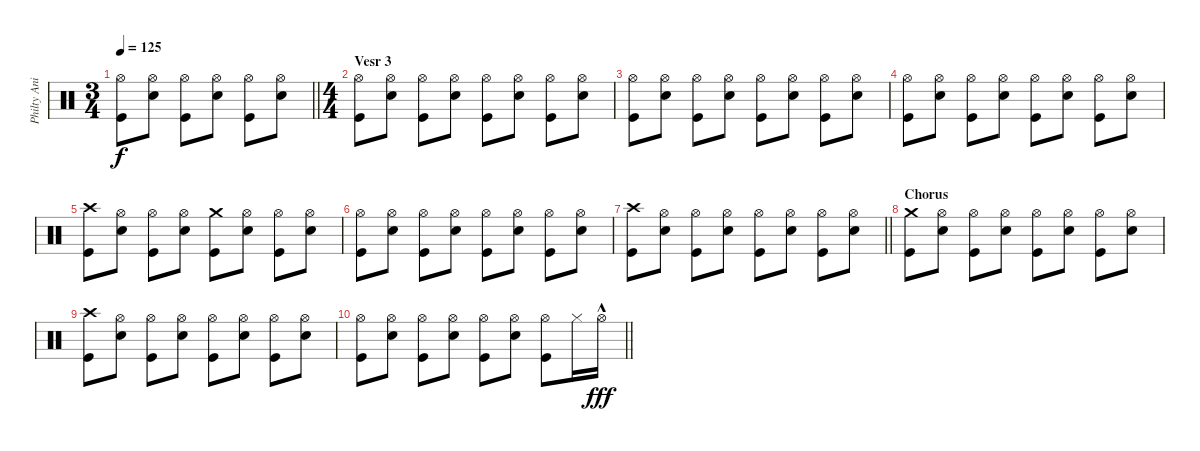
\track ("Philty Animal Taylor" "Philty Ani") {instrument percussion}
\staff {score}
\articulation defaults
\ts (3 4)
\tempo 125
\clef neutral
\barLineRight lightlight
\ks c
("Hi-Hat (open)" "Kick (hit)").8{dy f} ("Hi-Hat (open)" "Electric Snare (hit)").8 ("Hi-Hat (open)" "Kick (hit)").8 ("Hi-Hat (open)" "Electric Snare (hit)").8 ("Hi-Hat (open)" "Kick (hit)").8 ("Hi-Hat (open)" "Electric Snare (hit)").8 |
\ts (4 4)
\section ("" "Vesr 3")
("Hi-Hat (open)" "Kick (hit)").8 ("Hi-Hat (open)" "Electric Snare (hit)").8 ("Hi-Hat (open)" "Kick (hit)").8 ("Hi-Hat (open)" "Electric Snare (hit)").8 ("Hi-Hat (open)" "Kick (hit)").8 ("Hi-Hat (open)" "Electric Snare (hit)").8 ("Hi-Hat (open)" "Kick (hit)").8 ("Hi-Hat (open)" "Electric Snare (hit)").8 |
("Hi-Hat (open)" "Kick (hit)").8 ("Hi-Hat (open)" "Electric Snare (hit)").8 ("Hi-Hat (open)" "Kick (hit)").8 ("Hi-Hat (open)" "Electric Snare (hit)").8 ("Hi-Hat (open)" "Kick (hit)").8 ("Hi-Hat (open)" "Electric Snare (hit)").8 ("Hi-Hat (open)" "Kick (hit)").8 ("Hi-Hat (open)" "Electric Snare (hit)").8 |
("Hi-Hat (open)" "Kick (hit)").8 ("Hi-Hat (open)" "Electric Snare (hit)").8 ("Hi-Hat (open)" "Kick (hit)").8 ("Hi-Hat (open)" "Electric Snare (hit)").8 ("Hi-Hat (open)" "Kick (hit)").8 ("Hi-Hat (open)" "Electric Snare (hit)").8 ("Hi-Hat (open)" "Kick (hit)").8 ("Hi-Hat (open)" "Electric Snare (hit)").8 |
("Crash high (hit)" "Kick (hit)").8 ("Hi-Hat (open)" "Electric Snare (hit)").8 ("Hi-Hat (open)" "Kick (hit)").8 ("Hi-Hat (open)" "Electric Snare (hit)").8 ("Crash medium (hit)" "Kick (hit)").8 ("Hi-Hat (open)" "Electric Snare (hit)").8 ("Hi-Hat (open)" "Kick (hit)").8 ("Hi-Hat (open)" "Electric Snare (hit)").8 |
("Hi-Hat (open)" "Kick (hit)").8 ("Hi-Hat (open)" "Electric Snare (hit)").8 ("Hi-Hat (open)" "Kick (hit)").8 ("Hi-Hat (open)" "Electric Snare (hit)").8 ("Hi-Hat (open)" "Kick (hit)").8 ("Hi-Hat (open)" "Electric Snare (hit)").8 ("Hi-Hat (open)" "Kick (hit)").8 ("Hi-Hat (open)" "Electric Snare (hit)").8 |
\barLineRight lightlight
("Crash high (hit)" "Kick (hit)").8 ("Hi-Hat (open)" "Electric Snare (hit)").8 ("Hi-Hat (open)" "Kick (hit)").8 ("Hi-Hat (open)" "Electric Snare (hit)").8 ("Hi-Hat (open)" "Kick (hit)").8 ("Hi-Hat (open)" "Electric Snare (hit)").8 ("Hi-Hat (open)" "Kick (hit)").8 ("Hi-Hat (open)" "Electric Snare (hit)").8 |
\section ("" "Chorus")
("Crash medium (hit)" "Kick (hit)").8 ("Hi-Hat (open)" "Electric Snare (hit)").8 ("Hi-Hat (open)" "Kick (hit)").8 ("Hi-Hat (open)" "Electric Snare (hit)").8 ("Hi-Hat (open)" "Kick (hit)").8 ("Hi-Hat (open)" "Electric Snare (hit)").8 ("Hi-Hat (open)" "Kick (hit)").8 ("Hi-Hat (open)" "Electric Snare (hit)").8 |
("Crash high (hit)" "Kick (hit)").8 ("Hi-Hat (open)" "Electric Snare (hit)").8 ("Hi-Hat (open)" "Kick (hit)").8 ("Hi-Hat (open)" "Electric Snare (hit)").8 ("Hi-Hat (open)" "Kick (hit)").8 ("Hi-Hat (open)" "Electric Snare (hit)").8 ("Hi-Hat (open)" "Kick (hit)").8 ("Hi-Hat (open)" "Electric Snare (hit)").8 |
\barLineRight lightlight
("Hi-Hat (open)" "Kick (hit)").8 ("Hi-Hat (open)" "Electric Snare (hit)").8 ("Hi-Hat (open)" "Kick (hit)").8 ("Hi-Hat (open)" "Electric Snare (hit)").8 ("Hi-Hat (open)" "Kick (hit)").8 ("Hi-Hat (open)" "Electric Snare (hit)").8 ("Hi-Hat (open)" "Kick (hit)").8 "Hi-Hat (closed)".16 "Hi-Hat (open)"{hac}.16{dy fff}
